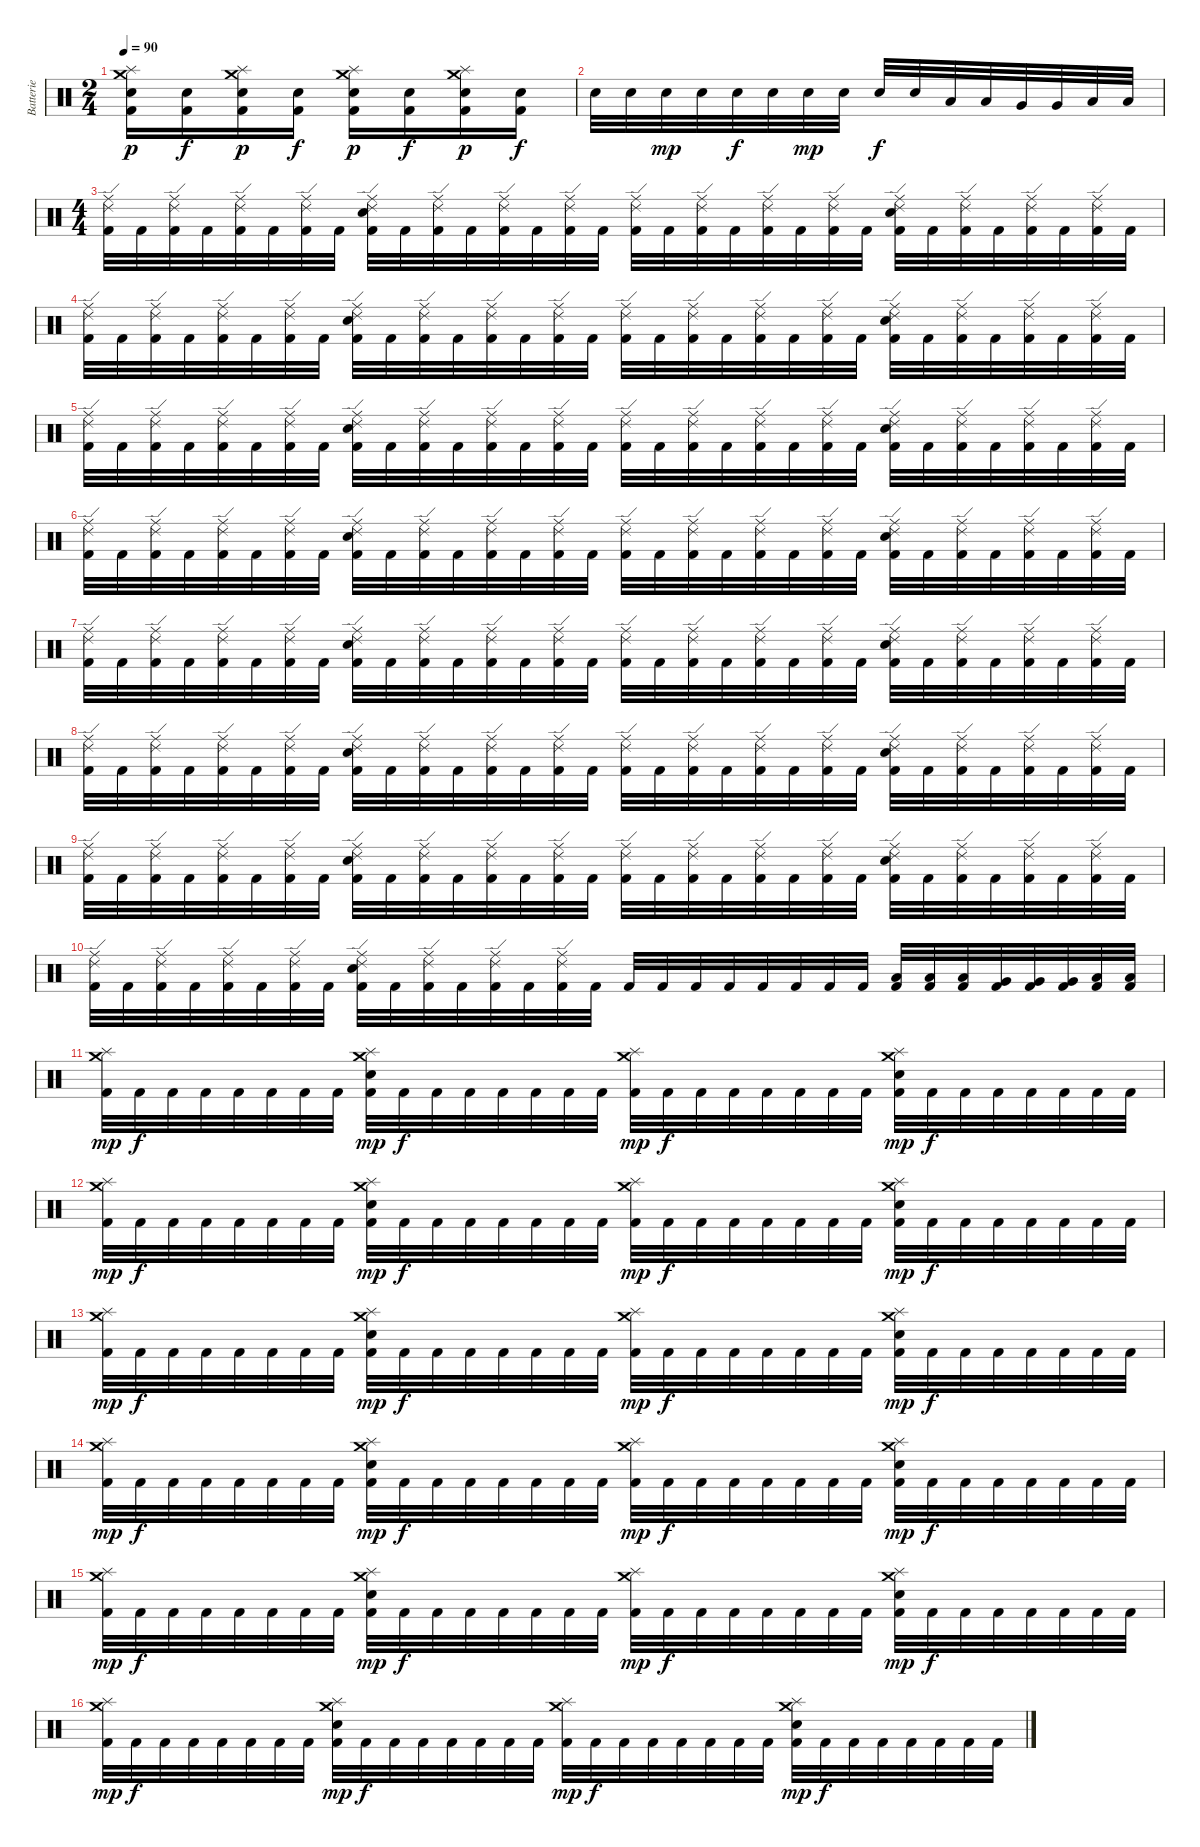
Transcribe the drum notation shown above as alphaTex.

\track ("Batterie" "Batterie") {instrument percussion}
\staff {score}
\articulation defaults
\ts (2 4)
\tempo 90
\clef neutral
\ks c
("Splash (hit)" "Crash medium (hit)" "Electric Snare (hit)" "Kick (hit) 2").16{dy p} ("Electric Snare (hit)" "Kick (hit) 2").16{dy f} ("Splash (hit)" "Crash medium (hit)" "Electric Snare (hit)" "Kick (hit) 2").16{dy p} ("Electric Snare (hit)" "Kick (hit) 2").16{dy f} ("Splash (hit)" "Crash medium (hit)" "Electric Snare (hit)" "Kick (hit) 2").16{dy p} ("Electric Snare (hit)" "Kick (hit) 2").16{dy f} ("Splash (hit)" "Crash medium (hit)" "Electric Snare (hit)" "Kick (hit) 2").16{dy p} ("Electric Snare (hit)" "Kick (hit) 2").16{dy f} |
"Electric Snare (hit)".32 "Electric Snare (hit)".32 "Electric Snare (hit)".32{dy mp} "Electric Snare (hit)".32 "Electric Snare (hit)".32{dy f} "Electric Snare (hit)".32 "Electric Snare (hit)".32{dy mp} "Electric Snare (hit)".32 "Electric Snare (hit)".32{dy f} "Electric Snare (hit)".32 "Low Tom (hit)".32 "Low Tom (hit)".32 "Very Low Tom (hit)".32 "Very Low Tom (hit)".32 "Low Floor Tom (hit)".32 "Low Floor Tom (hit)".32 |
\ts (4 4)
("Ride (edge) 2" "Ride (middle)" "Kick (hit) 2").32 "Kick (hit) 2".32 ("Ride (edge) 2" "Ride (middle)" "Kick (hit) 2").32 "Kick (hit) 2".32 ("Ride (edge) 2" "Ride (middle)" "Kick (hit) 2").32 "Kick (hit) 2".32 ("Ride (edge) 2" "Ride (middle)" "Kick (hit) 2").32 "Kick (hit) 2".32 ("Ride (edge) 2" "Ride (middle)" "Electric Snare (hit)" "Kick (hit) 2").32 "Kick (hit) 2".32 ("Ride (edge) 2" "Ride (middle)" "Kick (hit) 2").32 "Kick (hit) 2".32 ("Ride (edge) 2" "Ride (middle)" "Kick (hit) 2").32 "Kick (hit) 2".32 ("Ride (edge) 2" "Ride (middle)" "Kick (hit) 2").32 "Kick (hit) 2".32 ("Ride (edge) 2" "Ride (middle)" "Kick (hit) 2").32 "Kick (hit) 2".32 ("Ride (edge) 2" "Ride (middle)" "Kick (hit) 2").32 "Kick (hit) 2".32 ("Ride (edge) 2" "Ride (middle)" "Kick (hit) 2").32 "Kick (hit) 2".32 ("Ride (edge) 2" "Ride (middle)" "Kick (hit) 2").32 "Kick (hit) 2".32 ("Ride (edge) 2" "Ride (middle)" "Electric Snare (hit)" "Kick (hit) 2").32 "Kick (hit) 2".32 ("Ride (edge) 2" "Ride (middle)" "Kick (hit) 2").32 "Kick (hit) 2".32 ("Ride (edge) 2" "Ride (middle)" "Kick (hit) 2").32 "Kick (hit) 2".32 ("Ride (edge) 2" "Ride (middle)" "Kick (hit) 2").32 "Kick (hit) 2".32 |
("Ride (edge) 2" "Ride (middle)" "Kick (hit) 2").32 "Kick (hit) 2".32 ("Ride (edge) 2" "Ride (middle)" "Kick (hit) 2").32 "Kick (hit) 2".32 ("Ride (edge) 2" "Ride (middle)" "Kick (hit) 2").32 "Kick (hit) 2".32 ("Ride (edge) 2" "Ride (middle)" "Kick (hit) 2").32 "Kick (hit) 2".32 ("Ride (edge) 2" "Ride (middle)" "Electric Snare (hit)" "Kick (hit) 2").32 "Kick (hit) 2".32 ("Ride (edge) 2" "Ride (middle)" "Kick (hit) 2").32 "Kick (hit) 2".32 ("Ride (edge) 2" "Ride (middle)" "Kick (hit) 2").32 "Kick (hit) 2".32 ("Ride (edge) 2" "Ride (middle)" "Kick (hit) 2").32 "Kick (hit) 2".32 ("Ride (edge) 2" "Ride (middle)" "Kick (hit) 2").32 "Kick (hit) 2".32 ("Ride (edge) 2" "Ride (middle)" "Kick (hit) 2").32 "Kick (hit) 2".32 ("Ride (edge) 2" "Ride (middle)" "Kick (hit) 2").32 "Kick (hit) 2".32 ("Ride (edge) 2" "Ride (middle)" "Kick (hit) 2").32 "Kick (hit) 2".32 ("Ride (edge) 2" "Ride (middle)" "Electric Snare (hit)" "Kick (hit) 2").32 "Kick (hit) 2".32 ("Ride (edge) 2" "Ride (middle)" "Kick (hit) 2").32 "Kick (hit) 2".32 ("Ride (edge) 2" "Ride (middle)" "Kick (hit) 2").32 "Kick (hit) 2".32 ("Ride (edge) 2" "Ride (middle)" "Kick (hit) 2").32 "Kick (hit) 2".32 |
("Ride (edge) 2" "Ride (middle)" "Kick (hit) 2").32 "Kick (hit) 2".32 ("Ride (edge) 2" "Ride (middle)" "Kick (hit) 2").32 "Kick (hit) 2".32 ("Ride (edge) 2" "Ride (middle)" "Kick (hit) 2").32 "Kick (hit) 2".32 ("Ride (edge) 2" "Ride (middle)" "Kick (hit) 2").32 "Kick (hit) 2".32 ("Ride (edge) 2" "Ride (middle)" "Electric Snare (hit)" "Kick (hit) 2").32 "Kick (hit) 2".32 ("Ride (edge) 2" "Ride (middle)" "Kick (hit) 2").32 "Kick (hit) 2".32 ("Ride (edge) 2" "Ride (middle)" "Kick (hit) 2").32 "Kick (hit) 2".32 ("Ride (edge) 2" "Ride (middle)" "Kick (hit) 2").32 "Kick (hit) 2".32 ("Ride (edge) 2" "Ride (middle)" "Kick (hit) 2").32 "Kick (hit) 2".32 ("Ride (edge) 2" "Ride (middle)" "Kick (hit) 2").32 "Kick (hit) 2".32 ("Ride (edge) 2" "Ride (middle)" "Kick (hit) 2").32 "Kick (hit) 2".32 ("Ride (edge) 2" "Ride (middle)" "Kick (hit) 2").32 "Kick (hit) 2".32 ("Ride (edge) 2" "Ride (middle)" "Electric Snare (hit)" "Kick (hit) 2").32 "Kick (hit) 2".32 ("Ride (edge) 2" "Ride (middle)" "Kick (hit) 2").32 "Kick (hit) 2".32 ("Ride (edge) 2" "Ride (middle)" "Kick (hit) 2").32 "Kick (hit) 2".32 ("Ride (edge) 2" "Ride (middle)" "Kick (hit) 2").32 "Kick (hit) 2".32 |
("Ride (edge) 2" "Ride (middle)" "Kick (hit) 2").32 "Kick (hit) 2".32 ("Ride (edge) 2" "Ride (middle)" "Kick (hit) 2").32 "Kick (hit) 2".32 ("Ride (edge) 2" "Ride (middle)" "Kick (hit) 2").32 "Kick (hit) 2".32 ("Ride (edge) 2" "Ride (middle)" "Kick (hit) 2").32 "Kick (hit) 2".32 ("Ride (edge) 2" "Ride (middle)" "Electric Snare (hit)" "Kick (hit) 2").32 "Kick (hit) 2".32 ("Ride (edge) 2" "Ride (middle)" "Kick (hit) 2").32 "Kick (hit) 2".32 ("Ride (edge) 2" "Ride (middle)" "Kick (hit) 2").32 "Kick (hit) 2".32 ("Ride (edge) 2" "Ride (middle)" "Kick (hit) 2").32 "Kick (hit) 2".32 ("Ride (edge) 2" "Ride (middle)" "Kick (hit) 2").32 "Kick (hit) 2".32 ("Ride (edge) 2" "Ride (middle)" "Kick (hit) 2").32 "Kick (hit) 2".32 ("Ride (edge) 2" "Ride (middle)" "Kick (hit) 2").32 "Kick (hit) 2".32 ("Ride (edge) 2" "Ride (middle)" "Kick (hit) 2").32 "Kick (hit) 2".32 ("Ride (edge) 2" "Ride (middle)" "Electric Snare (hit)" "Kick (hit) 2").32 "Kick (hit) 2".32 ("Ride (edge) 2" "Ride (middle)" "Kick (hit) 2").32 "Kick (hit) 2".32 ("Ride (edge) 2" "Ride (middle)" "Kick (hit) 2").32 "Kick (hit) 2".32 ("Ride (edge) 2" "Ride (middle)" "Kick (hit) 2").32 "Kick (hit) 2".32 |
("Ride (edge) 2" "Ride (middle)" "Kick (hit) 2").32 "Kick (hit) 2".32 ("Ride (edge) 2" "Ride (middle)" "Kick (hit) 2").32 "Kick (hit) 2".32 ("Ride (edge) 2" "Ride (middle)" "Kick (hit) 2").32 "Kick (hit) 2".32 ("Ride (edge) 2" "Ride (middle)" "Kick (hit) 2").32 "Kick (hit) 2".32 ("Ride (edge) 2" "Ride (middle)" "Electric Snare (hit)" "Kick (hit) 2").32 "Kick (hit) 2".32 ("Ride (edge) 2" "Ride (middle)" "Kick (hit) 2").32 "Kick (hit) 2".32 ("Ride (edge) 2" "Ride (middle)" "Kick (hit) 2").32 "Kick (hit) 2".32 ("Ride (edge) 2" "Ride (middle)" "Kick (hit) 2").32 "Kick (hit) 2".32 ("Ride (edge) 2" "Ride (middle)" "Kick (hit) 2").32 "Kick (hit) 2".32 ("Ride (edge) 2" "Ride (middle)" "Kick (hit) 2").32 "Kick (hit) 2".32 ("Ride (edge) 2" "Ride (middle)" "Kick (hit) 2").32 "Kick (hit) 2".32 ("Ride (edge) 2" "Ride (middle)" "Kick (hit) 2").32 "Kick (hit) 2".32 ("Ride (edge) 2" "Ride (middle)" "Electric Snare (hit)" "Kick (hit) 2").32 "Kick (hit) 2".32 ("Ride (edge) 2" "Ride (middle)" "Kick (hit) 2").32 "Kick (hit) 2".32 ("Ride (edge) 2" "Ride (middle)" "Kick (hit) 2").32 "Kick (hit) 2".32 ("Ride (edge) 2" "Ride (middle)" "Kick (hit) 2").32 "Kick (hit) 2".32 |
("Ride (edge) 2" "Ride (middle)" "Kick (hit) 2").32 "Kick (hit) 2".32 ("Ride (edge) 2" "Ride (middle)" "Kick (hit) 2").32 "Kick (hit) 2".32 ("Ride (edge) 2" "Ride (middle)" "Kick (hit) 2").32 "Kick (hit) 2".32 ("Ride (edge) 2" "Ride (middle)" "Kick (hit) 2").32 "Kick (hit) 2".32 ("Ride (edge) 2" "Ride (middle)" "Electric Snare (hit)" "Kick (hit) 2").32 "Kick (hit) 2".32 ("Ride (edge) 2" "Ride (middle)" "Kick (hit) 2").32 "Kick (hit) 2".32 ("Ride (edge) 2" "Ride (middle)" "Kick (hit) 2").32 "Kick (hit) 2".32 ("Ride (edge) 2" "Ride (middle)" "Kick (hit) 2").32 "Kick (hit) 2".32 ("Ride (edge) 2" "Ride (middle)" "Kick (hit) 2").32 "Kick (hit) 2".32 ("Ride (edge) 2" "Ride (middle)" "Kick (hit) 2").32 "Kick (hit) 2".32 ("Ride (edge) 2" "Ride (middle)" "Kick (hit) 2").32 "Kick (hit) 2".32 ("Ride (edge) 2" "Ride (middle)" "Kick (hit) 2").32 "Kick (hit) 2".32 ("Ride (edge) 2" "Ride (middle)" "Electric Snare (hit)" "Kick (hit) 2").32 "Kick (hit) 2".32 ("Ride (edge) 2" "Ride (middle)" "Kick (hit) 2").32 "Kick (hit) 2".32 ("Ride (edge) 2" "Ride (middle)" "Kick (hit) 2").32 "Kick (hit) 2".32 ("Ride (edge) 2" "Ride (middle)" "Kick (hit) 2").32 "Kick (hit) 2".32 |
("Ride (edge) 2" "Ride (middle)" "Kick (hit) 2").32 "Kick (hit) 2".32 ("Ride (edge) 2" "Ride (middle)" "Kick (hit) 2").32 "Kick (hit) 2".32 ("Ride (edge) 2" "Ride (middle)" "Kick (hit) 2").32 "Kick (hit) 2".32 ("Ride (edge) 2" "Ride (middle)" "Kick (hit) 2").32 "Kick (hit) 2".32 ("Ride (edge) 2" "Ride (middle)" "Electric Snare (hit)" "Kick (hit) 2").32 "Kick (hit) 2".32 ("Ride (edge) 2" "Ride (middle)" "Kick (hit) 2").32 "Kick (hit) 2".32 ("Ride (edge) 2" "Ride (middle)" "Kick (hit) 2").32 "Kick (hit) 2".32 ("Ride (edge) 2" "Ride (middle)" "Kick (hit) 2").32 "Kick (hit) 2".32 ("Ride (edge) 2" "Ride (middle)" "Kick (hit) 2").32 "Kick (hit) 2".32 ("Ride (edge) 2" "Ride (middle)" "Kick (hit) 2").32 "Kick (hit) 2".32 ("Ride (edge) 2" "Ride (middle)" "Kick (hit) 2").32 "Kick (hit) 2".32 ("Ride (edge) 2" "Ride (middle)" "Kick (hit) 2").32 "Kick (hit) 2".32 ("Ride (edge) 2" "Ride (middle)" "Electric Snare (hit)" "Kick (hit) 2").32 "Kick (hit) 2".32 ("Ride (edge) 2" "Ride (middle)" "Kick (hit) 2").32 "Kick (hit) 2".32 ("Ride (edge) 2" "Ride (middle)" "Kick (hit) 2").32 "Kick (hit) 2".32 ("Ride (edge) 2" "Ride (middle)" "Kick (hit) 2").32 "Kick (hit) 2".32 |
("Ride (edge) 2" "Ride (middle)" "Kick (hit) 2").32 "Kick (hit) 2".32 ("Ride (edge) 2" "Ride (middle)" "Kick (hit) 2").32 "Kick (hit) 2".32 ("Ride (edge) 2" "Ride (middle)" "Kick (hit) 2").32 "Kick (hit) 2".32 ("Ride (edge) 2" "Ride (middle)" "Kick (hit) 2").32 "Kick (hit) 2".32 ("Ride (edge) 2" "Ride (middle)" "Electric Snare (hit)" "Kick (hit) 2").32 "Kick (hit) 2".32 ("Ride (edge) 2" "Ride (middle)" "Kick (hit) 2").32 "Kick (hit) 2".32 ("Ride (edge) 2" "Ride (middle)" "Kick (hit) 2").32 "Kick (hit) 2".32 ("Ride (edge) 2" "Ride (middle)" "Kick (hit) 2").32 "Kick (hit) 2".32 "Kick (hit) 2".32 "Kick (hit) 2".32 "Kick (hit) 2".32 "Kick (hit) 2".32 "Kick (hit) 2".32 "Kick (hit) 2".32 "Kick (hit) 2".32 "Kick (hit) 2".32 ("Low Tom (hit)" "Kick (hit) 2").32 ("Low Tom (hit)" "Kick (hit) 2").32 ("Low Tom (hit)" "Kick (hit) 2").32 ("Very Low Tom (hit)" "Kick (hit) 2").32 ("Very Low Tom (hit)" "Kick (hit) 2").32 ("Very Low Tom (hit)" "Kick (hit) 2").32 ("Low Floor Tom (hit)" "Kick (hit) 2").32 ("Low Floor Tom (hit)" "Kick (hit) 2").32 |
("Splash (hit)" "Crash medium (hit)" "Kick (hit) 2").32{dy mp} "Kick (hit) 2".32{dy f} "Kick (hit) 2".32 "Kick (hit) 2".32 "Kick (hit) 2".32 "Kick (hit) 2".32 "Kick (hit) 2".32 "Kick (hit) 2".32 ("Splash (hit)" "Crash medium (hit)" "Electric Snare (hit)" "Kick (hit) 2").32{dy mp} "Kick (hit) 2".32{dy f} "Kick (hit) 2".32 "Kick (hit) 2".32 "Kick (hit) 2".32 "Kick (hit) 2".32 "Kick (hit) 2".32 "Kick (hit) 2".32 ("Splash (hit)" "Crash medium (hit)" "Kick (hit) 2").32{dy mp} "Kick (hit) 2".32{dy f} "Kick (hit) 2".32 "Kick (hit) 2".32 "Kick (hit) 2".32 "Kick (hit) 2".32 "Kick (hit) 2".32 "Kick (hit) 2".32 ("Splash (hit)" "Crash medium (hit)" "Electric Snare (hit)" "Kick (hit) 2").32{dy mp} "Kick (hit) 2".32{dy f} "Kick (hit) 2".32 "Kick (hit) 2".32 "Kick (hit) 2".32 "Kick (hit) 2".32 "Kick (hit) 2".32 "Kick (hit) 2".32 |
("Splash (hit)" "Crash medium (hit)" "Kick (hit) 2").32{dy mp} "Kick (hit) 2".32{dy f} "Kick (hit) 2".32 "Kick (hit) 2".32 "Kick (hit) 2".32 "Kick (hit) 2".32 "Kick (hit) 2".32 "Kick (hit) 2".32 ("Splash (hit)" "Crash medium (hit)" "Electric Snare (hit)" "Kick (hit) 2").32{dy mp} "Kick (hit) 2".32{dy f} "Kick (hit) 2".32 "Kick (hit) 2".32 "Kick (hit) 2".32 "Kick (hit) 2".32 "Kick (hit) 2".32 "Kick (hit) 2".32 ("Splash (hit)" "Crash medium (hit)" "Kick (hit) 2").32{dy mp} "Kick (hit) 2".32{dy f} "Kick (hit) 2".32 "Kick (hit) 2".32 "Kick (hit) 2".32 "Kick (hit) 2".32 "Kick (hit) 2".32 "Kick (hit) 2".32 ("Splash (hit)" "Crash medium (hit)" "Electric Snare (hit)" "Kick (hit) 2").32{dy mp} "Kick (hit) 2".32{dy f} "Kick (hit) 2".32 "Kick (hit) 2".32 "Kick (hit) 2".32 "Kick (hit) 2".32 "Kick (hit) 2".32 "Kick (hit) 2".32 |
("Splash (hit)" "Crash medium (hit)" "Kick (hit) 2").32{dy mp} "Kick (hit) 2".32{dy f} "Kick (hit) 2".32 "Kick (hit) 2".32 "Kick (hit) 2".32 "Kick (hit) 2".32 "Kick (hit) 2".32 "Kick (hit) 2".32 ("Splash (hit)" "Crash medium (hit)" "Electric Snare (hit)" "Kick (hit) 2").32{dy mp} "Kick (hit) 2".32{dy f} "Kick (hit) 2".32 "Kick (hit) 2".32 "Kick (hit) 2".32 "Kick (hit) 2".32 "Kick (hit) 2".32 "Kick (hit) 2".32 ("Splash (hit)" "Crash medium (hit)" "Kick (hit) 2").32{dy mp} "Kick (hit) 2".32{dy f} "Kick (hit) 2".32 "Kick (hit) 2".32 "Kick (hit) 2".32 "Kick (hit) 2".32 "Kick (hit) 2".32 "Kick (hit) 2".32 ("Splash (hit)" "Crash medium (hit)" "Electric Snare (hit)" "Kick (hit) 2").32{dy mp} "Kick (hit) 2".32{dy f} "Kick (hit) 2".32 "Kick (hit) 2".32 "Kick (hit) 2".32 "Kick (hit) 2".32 "Kick (hit) 2".32 "Kick (hit) 2".32 |
("Splash (hit)" "Crash medium (hit)" "Kick (hit) 2").32{dy mp} "Kick (hit) 2".32{dy f} "Kick (hit) 2".32 "Kick (hit) 2".32 "Kick (hit) 2".32 "Kick (hit) 2".32 "Kick (hit) 2".32 "Kick (hit) 2".32 ("Splash (hit)" "Crash medium (hit)" "Electric Snare (hit)" "Kick (hit) 2").32{dy mp} "Kick (hit) 2".32{dy f} "Kick (hit) 2".32 "Kick (hit) 2".32 "Kick (hit) 2".32 "Kick (hit) 2".32 "Kick (hit) 2".32 "Kick (hit) 2".32 ("Splash (hit)" "Crash medium (hit)" "Kick (hit) 2").32{dy mp} "Kick (hit) 2".32{dy f} "Kick (hit) 2".32 "Kick (hit) 2".32 "Kick (hit) 2".32 "Kick (hit) 2".32 "Kick (hit) 2".32 "Kick (hit) 2".32 ("Splash (hit)" "Crash medium (hit)" "Electric Snare (hit)" "Kick (hit) 2").32{dy mp} "Kick (hit) 2".32{dy f} "Kick (hit) 2".32 "Kick (hit) 2".32 "Kick (hit) 2".32 "Kick (hit) 2".32 "Kick (hit) 2".32 "Kick (hit) 2".32 |
("Splash (hit)" "Crash medium (hit)" "Kick (hit) 2").32{dy mp} "Kick (hit) 2".32{dy f} "Kick (hit) 2".32 "Kick (hit) 2".32 "Kick (hit) 2".32 "Kick (hit) 2".32 "Kick (hit) 2".32 "Kick (hit) 2".32 ("Splash (hit)" "Crash medium (hit)" "Electric Snare (hit)" "Kick (hit) 2").32{dy mp} "Kick (hit) 2".32{dy f} "Kick (hit) 2".32 "Kick (hit) 2".32 "Kick (hit) 2".32 "Kick (hit) 2".32 "Kick (hit) 2".32 "Kick (hit) 2".32 ("Splash (hit)" "Crash medium (hit)" "Kick (hit) 2").32{dy mp} "Kick (hit) 2".32{dy f} "Kick (hit) 2".32 "Kick (hit) 2".32 "Kick (hit) 2".32 "Kick (hit) 2".32 "Kick (hit) 2".32 "Kick (hit) 2".32 ("Splash (hit)" "Crash medium (hit)" "Electric Snare (hit)" "Kick (hit) 2").32{dy mp} "Kick (hit) 2".32{dy f} "Kick (hit) 2".32 "Kick (hit) 2".32 "Kick (hit) 2".32 "Kick (hit) 2".32 "Kick (hit) 2".32 "Kick (hit) 2".32 |
("Splash (hit)" "Crash medium (hit)" "Kick (hit) 2").32{dy mp} "Kick (hit) 2".32{dy f} "Kick (hit) 2".32 "Kick (hit) 2".32 "Kick (hit) 2".32 "Kick (hit) 2".32 "Kick (hit) 2".32 "Kick (hit) 2".32 ("Splash (hit)" "Crash medium (hit)" "Electric Snare (hit)" "Kick (hit) 2").32{dy mp} "Kick (hit) 2".32{dy f} "Kick (hit) 2".32 "Kick (hit) 2".32 "Kick (hit) 2".32 "Kick (hit) 2".32 "Kick (hit) 2".32 "Kick (hit) 2".32 ("Splash (hit)" "Crash medium (hit)" "Kick (hit) 2").32{dy mp} "Kick (hit) 2".32{dy f} "Kick (hit) 2".32 "Kick (hit) 2".32 "Kick (hit) 2".32 "Kick (hit) 2".32 "Kick (hit) 2".32 "Kick (hit) 2".32 ("Splash (hit)" "Crash medium (hit)" "Electric Snare (hit)" "Kick (hit) 2").32{dy mp} "Kick (hit) 2".32{dy f} "Kick (hit) 2".32 "Kick (hit) 2".32 "Kick (hit) 2".32 "Kick (hit) 2".32 "Kick (hit) 2".32 "Kick (hit) 2".32
